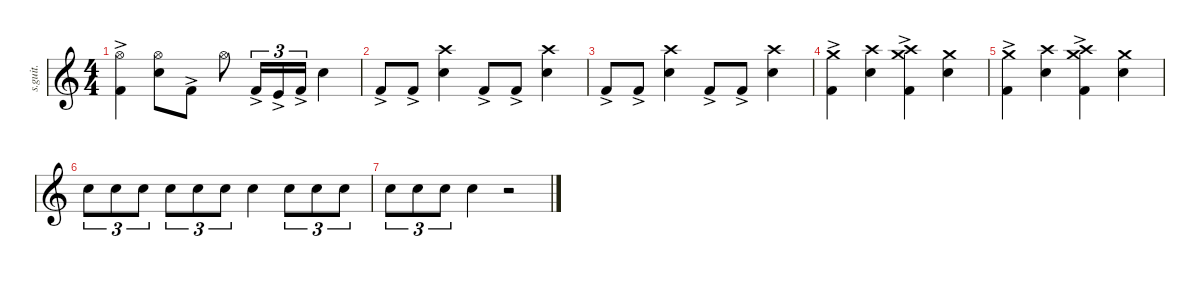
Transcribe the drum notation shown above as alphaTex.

\defaultSystemsLayout 4
\hideDynamics
\bracketExtendMode nobrackets
\track ("Lars Ulrich - Drums" "s.guit.") {instrument percussion}
\staff {score}
\articulation defaults
\ts (4 4)
\tempo (220 hide)
\clef g2
\ks c
("Hi-Hat (open)" "Kick (hit) 2"{ac}).4{lyrics (0 "") lyrics (1 "") lyrics (2 "") lyrics (3 "") lyrics (4 "") dy f} ("Hi-Hat (open)" "Snare (hit) 2").8{lyrics (0 "") lyrics (1 "") lyrics (2 "") lyrics (3 "") lyrics (4 "")} "Kick (hit) 2"{ac}.8{lyrics (0 "") lyrics (1 "") lyrics (2 "") lyrics (3 "") lyrics (4 "") dy mp} "Hi-Hat (open)".8{lyrics (0 "") lyrics (1 "") lyrics (2 "") lyrics (3 "") lyrics (4 "") dy f} "Kick (hit) 2"{ac}.16{tu (3 2) lyrics (0 "") lyrics (1 "") lyrics (2 "") lyrics (3 "") lyrics (4 "") dy mp} "Kick (hit)"{ac}.16{tu (3 2) lyrics (0 "") lyrics (1 "") lyrics (2 "") lyrics (3 "") lyrics (4 "") dy mf} "Kick (hit) 2"{ac}.16{tu (3 2) lyrics (0 "") lyrics (1 "") lyrics (2 "") lyrics (3 "") lyrics (4 "") dy mp} "Electric Snare (hit)".4{lyrics (0 "") lyrics (1 "") lyrics (2 "") lyrics (3 "") lyrics (4 "") dy f} |
"Kick (hit) 2"{ac}.8{lyrics (0 "") lyrics (1 "") lyrics (2 "") lyrics (3 "") lyrics (4 "") dy mp} "Kick (hit) 2"{ac}.8{lyrics (0 "") lyrics (1 "") lyrics (2 "") lyrics (3 "") lyrics (4 "")} ("Crash high (hit)" "Snare (hit) 2").4{lyrics (0 "") lyrics (1 "") lyrics (2 "") lyrics (3 "") lyrics (4 "") dy f} "Kick (hit) 2"{ac}.8{lyrics (0 "") lyrics (1 "") lyrics (2 "") lyrics (3 "") lyrics (4 "") dy mp} "Kick (hit) 2"{ac}.8{lyrics (0 "") lyrics (1 "") lyrics (2 "") lyrics (3 "") lyrics (4 "")} ("Snare (hit) 2" "Crash high (hit)").4{lyrics (0 "") lyrics (1 "") lyrics (2 "") lyrics (3 "") lyrics (4 "") dy f} |
"Kick (hit) 2"{ac}.8{lyrics (0 "") lyrics (1 "") lyrics (2 "") lyrics (3 "") lyrics (4 "") dy mp} "Kick (hit) 2"{ac}.8{lyrics (0 "") lyrics (1 "") lyrics (2 "") lyrics (3 "") lyrics (4 "")} ("Snare (hit) 2" "Crash high (hit)").4{lyrics (0 "") lyrics (1 "") lyrics (2 "") lyrics (3 "") lyrics (4 "") dy f} "Kick (hit) 2"{ac}.8{lyrics (0 "") lyrics (1 "") lyrics (2 "") lyrics (3 "") lyrics (4 "") dy mp} "Kick (hit) 2"{ac}.8{lyrics (0 "") lyrics (1 "") lyrics (2 "") lyrics (3 "") lyrics (4 "")} ("Crash high (hit)" "Snare (hit) 2").4{lyrics (0 "") lyrics (1 "") lyrics (2 "") lyrics (3 "") lyrics (4 "") dy f} |
("Crash medium (hit)" "Kick (hit) 2"{ac}).4{lyrics (0 "") lyrics (1 "") lyrics (2 "") lyrics (3 "") lyrics (4 "")} ("Snare (hit) 2" "Crash high (hit)").4{lyrics (0 "") lyrics (1 "") lyrics (2 "") lyrics (3 "") lyrics (4 "")} ("Crash medium (hit)" "Kick (hit) 2"{ac} "Crash high (hit)").4{lyrics (0 "") lyrics (1 "") lyrics (2 "") lyrics (3 "") lyrics (4 "")} ("Snare (hit) 2" "Crash medium (hit)").4{lyrics (0 "") lyrics (1 "") lyrics (2 "") lyrics (3 "") lyrics (4 "")} |
("Kick (hit) 2"{ac} "Crash medium (hit)").4{lyrics (0 "") lyrics (1 "") lyrics (2 "") lyrics (3 "") lyrics (4 "")} ("Snare (hit) 2" "Crash high (hit)").4{lyrics (0 "") lyrics (1 "") lyrics (2 "") lyrics (3 "") lyrics (4 "")} ("Kick (hit) 2"{ac} "Crash medium (hit)" "Crash high (hit)").4{lyrics (0 "") lyrics (1 "") lyrics (2 "") lyrics (3 "") lyrics (4 "")} ("Snare (hit) 2" "Crash medium (hit)").4{lyrics (0 "") lyrics (1 "") lyrics (2 "") lyrics (3 "") lyrics (4 "")} |
"Snare (hit) 2".8{tu (3 2) lyrics (0 "") lyrics (1 "") lyrics (2 "") lyrics (3 "") lyrics (4 "")} "Snare (hit) 2".8{tu (3 2) lyrics (0 "") lyrics (1 "") lyrics (2 "") lyrics (3 "") lyrics (4 "")} "Snare (hit) 2".8{tu (3 2) lyrics (0 "") lyrics (1 "") lyrics (2 "") lyrics (3 "") lyrics (4 "")} "Snare (hit) 2".8{tu (3 2) lyrics (0 "") lyrics (1 "") lyrics (2 "") lyrics (3 "") lyrics (4 "")} "Snare (hit) 2".8{tu (3 2) lyrics (0 "") lyrics (1 "") lyrics (2 "") lyrics (3 "") lyrics (4 "")} "Snare (hit) 2".8{tu (3 2) lyrics (0 "") lyrics (1 "") lyrics (2 "") lyrics (3 "") lyrics (4 "")} "Snare (hit) 2".4{lyrics (0 "") lyrics (1 "") lyrics (2 "") lyrics (3 "") lyrics (4 "")} "Snare (hit) 2".8{tu (3 2) lyrics (0 "") lyrics (1 "") lyrics (2 "") lyrics (3 "") lyrics (4 "")} "Snare (hit) 2".8{tu (3 2) lyrics (0 "") lyrics (1 "") lyrics (2 "") lyrics (3 "") lyrics (4 "")} "Snare (hit) 2".8{tu (3 2) lyrics (0 "") lyrics (1 "") lyrics (2 "") lyrics (3 "") lyrics (4 "")} |
"Snare (hit) 2".8{tu (3 2) lyrics (0 "") lyrics (1 "") lyrics (2 "") lyrics (3 "") lyrics (4 "")} "Snare (hit) 2".8{tu (3 2) lyrics (0 "") lyrics (1 "") lyrics (2 "") lyrics (3 "") lyrics (4 "")} "Snare (hit) 2".8{tu (3 2) lyrics (0 "") lyrics (1 "") lyrics (2 "") lyrics (3 "") lyrics (4 "")} "Snare (hit) 2".4{lyrics (0 "") lyrics (1 "") lyrics (2 "") lyrics (3 "") lyrics (4 "")} r.2
